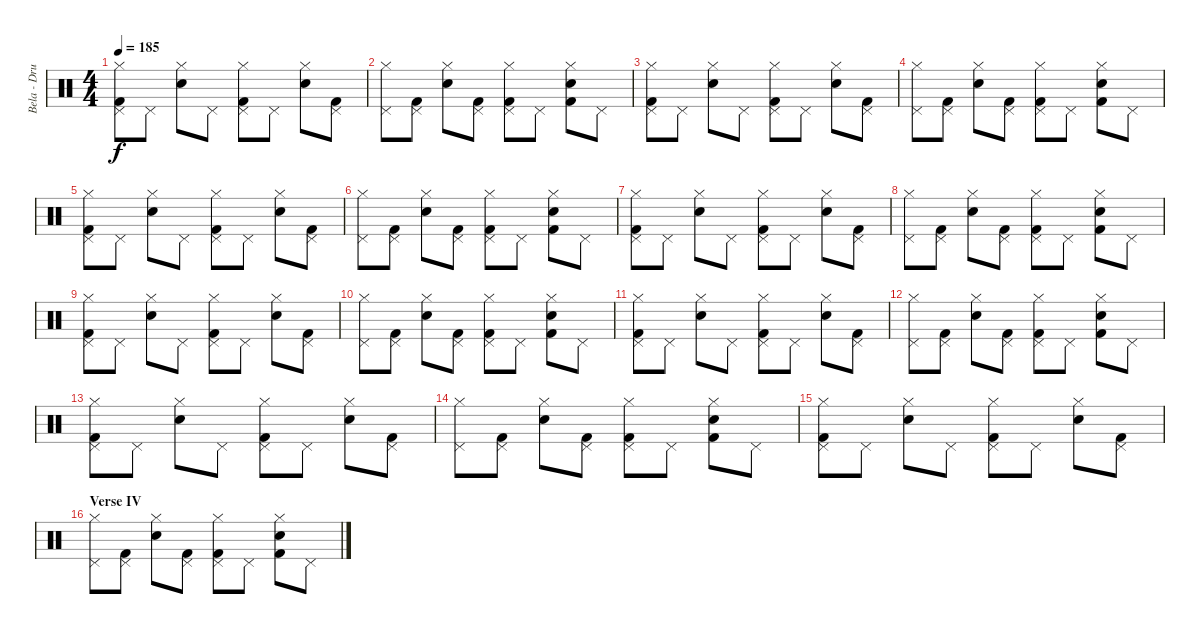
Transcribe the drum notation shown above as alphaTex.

\track ("Bela - Drums" "Bela - Dru") {instrument percussion}
\staff {score}
\articulation defaults
\ts (4 4)
\tempo 185
\clef neutral
\ks c
("Hi-Hat (closed)" "Pedal Hi-Hat (hit)" "Kick (hit) 2").8{dy f} "Pedal Hi-Hat (hit)".8 ("Hi-Hat (closed)" "Electric Snare (hit)").8 "Pedal Hi-Hat (hit)".8 ("Hi-Hat (closed)" "Kick (hit) 2" "Pedal Hi-Hat (hit)").8 "Pedal Hi-Hat (hit)".8 ("Hi-Hat (closed)" "Electric Snare (hit)").8 ("Pedal Hi-Hat (hit)" "Kick (hit) 2").8 |
("Hi-Hat (closed)" "Pedal Hi-Hat (hit)").8 ("Kick (hit) 2" "Pedal Hi-Hat (hit)").8 ("Hi-Hat (closed)" "Electric Snare (hit)").8 ("Kick (hit) 2" "Pedal Hi-Hat (hit)").8 ("Kick (hit) 2" "Hi-Hat (closed)" "Pedal Hi-Hat (hit)").8 "Pedal Hi-Hat (hit)".8 ("Hi-Hat (closed)" "Kick (hit) 2" "Electric Snare (hit)").8 "Pedal Hi-Hat (hit)".8 |
("Hi-Hat (closed)" "Pedal Hi-Hat (hit)" "Kick (hit) 2").8 "Pedal Hi-Hat (hit)".8 ("Hi-Hat (closed)" "Electric Snare (hit)").8 "Pedal Hi-Hat (hit)".8 ("Hi-Hat (closed)" "Kick (hit) 2" "Pedal Hi-Hat (hit)").8 "Pedal Hi-Hat (hit)".8 ("Hi-Hat (closed)" "Electric Snare (hit)").8 ("Pedal Hi-Hat (hit)" "Kick (hit) 2").8 |
("Hi-Hat (closed)" "Pedal Hi-Hat (hit)").8 ("Kick (hit) 2" "Pedal Hi-Hat (hit)").8 ("Hi-Hat (closed)" "Electric Snare (hit)").8 ("Kick (hit) 2" "Pedal Hi-Hat (hit)").8 ("Kick (hit) 2" "Hi-Hat (closed)" "Pedal Hi-Hat (hit)").8 "Pedal Hi-Hat (hit)".8 ("Hi-Hat (closed)" "Kick (hit) 2" "Electric Snare (hit)").8 "Pedal Hi-Hat (hit)".8 |
("Hi-Hat (closed)" "Pedal Hi-Hat (hit)" "Kick (hit) 2").8 "Pedal Hi-Hat (hit)".8 ("Hi-Hat (closed)" "Electric Snare (hit)").8 "Pedal Hi-Hat (hit)".8 ("Hi-Hat (closed)" "Kick (hit) 2" "Pedal Hi-Hat (hit)").8 "Pedal Hi-Hat (hit)".8 ("Hi-Hat (closed)" "Electric Snare (hit)").8 ("Pedal Hi-Hat (hit)" "Kick (hit) 2").8 |
("Hi-Hat (closed)" "Pedal Hi-Hat (hit)").8 ("Kick (hit) 2" "Pedal Hi-Hat (hit)").8 ("Hi-Hat (closed)" "Electric Snare (hit)").8 ("Kick (hit) 2" "Pedal Hi-Hat (hit)").8 ("Kick (hit) 2" "Hi-Hat (closed)" "Pedal Hi-Hat (hit)").8 "Pedal Hi-Hat (hit)".8 ("Hi-Hat (closed)" "Kick (hit) 2" "Electric Snare (hit)").8 "Pedal Hi-Hat (hit)".8 |
("Hi-Hat (closed)" "Pedal Hi-Hat (hit)" "Kick (hit) 2").8 "Pedal Hi-Hat (hit)".8 ("Hi-Hat (closed)" "Electric Snare (hit)").8 "Pedal Hi-Hat (hit)".8 ("Hi-Hat (closed)" "Kick (hit) 2" "Pedal Hi-Hat (hit)").8 "Pedal Hi-Hat (hit)".8 ("Hi-Hat (closed)" "Electric Snare (hit)").8 ("Pedal Hi-Hat (hit)" "Kick (hit) 2").8 |
("Hi-Hat (closed)" "Pedal Hi-Hat (hit)").8 ("Kick (hit) 2" "Pedal Hi-Hat (hit)").8 ("Hi-Hat (closed)" "Electric Snare (hit)").8 ("Kick (hit) 2" "Pedal Hi-Hat (hit)").8 ("Kick (hit) 2" "Hi-Hat (closed)" "Pedal Hi-Hat (hit)").8 "Pedal Hi-Hat (hit)".8 ("Hi-Hat (closed)" "Kick (hit) 2" "Electric Snare (hit)").8 "Pedal Hi-Hat (hit)".8 |
("Hi-Hat (closed)" "Pedal Hi-Hat (hit)" "Kick (hit) 2").8 "Pedal Hi-Hat (hit)".8 ("Hi-Hat (closed)" "Electric Snare (hit)").8 "Pedal Hi-Hat (hit)".8 ("Hi-Hat (closed)" "Kick (hit) 2" "Pedal Hi-Hat (hit)").8 "Pedal Hi-Hat (hit)".8 ("Hi-Hat (closed)" "Electric Snare (hit)").8 ("Pedal Hi-Hat (hit)" "Kick (hit) 2").8 |
("Hi-Hat (closed)" "Pedal Hi-Hat (hit)").8 ("Kick (hit) 2" "Pedal Hi-Hat (hit)").8 ("Hi-Hat (closed)" "Electric Snare (hit)").8 ("Kick (hit) 2" "Pedal Hi-Hat (hit)").8 ("Kick (hit) 2" "Hi-Hat (closed)" "Pedal Hi-Hat (hit)").8 "Pedal Hi-Hat (hit)".8 ("Hi-Hat (closed)" "Kick (hit) 2" "Electric Snare (hit)").8 "Pedal Hi-Hat (hit)".8 |
("Hi-Hat (closed)" "Pedal Hi-Hat (hit)" "Kick (hit) 2").8 "Pedal Hi-Hat (hit)".8 ("Hi-Hat (closed)" "Electric Snare (hit)").8 "Pedal Hi-Hat (hit)".8 ("Hi-Hat (closed)" "Kick (hit) 2" "Pedal Hi-Hat (hit)").8 "Pedal Hi-Hat (hit)".8 ("Hi-Hat (closed)" "Electric Snare (hit)").8 ("Pedal Hi-Hat (hit)" "Kick (hit) 2").8 |
("Hi-Hat (closed)" "Pedal Hi-Hat (hit)").8 ("Kick (hit) 2" "Pedal Hi-Hat (hit)").8 ("Hi-Hat (closed)" "Electric Snare (hit)").8 ("Kick (hit) 2" "Pedal Hi-Hat (hit)").8 ("Kick (hit) 2" "Hi-Hat (closed)" "Pedal Hi-Hat (hit)").8 "Pedal Hi-Hat (hit)".8 ("Hi-Hat (closed)" "Kick (hit) 2" "Electric Snare (hit)").8 "Pedal Hi-Hat (hit)".8 |
("Hi-Hat (closed)" "Pedal Hi-Hat (hit)" "Kick (hit) 2").8 "Pedal Hi-Hat (hit)".8 ("Hi-Hat (closed)" "Electric Snare (hit)").8 "Pedal Hi-Hat (hit)".8 ("Hi-Hat (closed)" "Kick (hit) 2" "Pedal Hi-Hat (hit)").8 "Pedal Hi-Hat (hit)".8 ("Hi-Hat (closed)" "Electric Snare (hit)").8 ("Pedal Hi-Hat (hit)" "Kick (hit) 2").8 |
("Hi-Hat (closed)" "Pedal Hi-Hat (hit)").8 ("Kick (hit) 2" "Pedal Hi-Hat (hit)").8 ("Hi-Hat (closed)" "Electric Snare (hit)").8 ("Kick (hit) 2" "Pedal Hi-Hat (hit)").8 ("Kick (hit) 2" "Hi-Hat (closed)" "Pedal Hi-Hat (hit)").8 "Pedal Hi-Hat (hit)".8 ("Hi-Hat (closed)" "Kick (hit) 2" "Electric Snare (hit)").8 "Pedal Hi-Hat (hit)".8 |
("Hi-Hat (closed)" "Pedal Hi-Hat (hit)" "Kick (hit) 2").8 "Pedal Hi-Hat (hit)".8 ("Hi-Hat (closed)" "Electric Snare (hit)").8 "Pedal Hi-Hat (hit)".8 ("Hi-Hat (closed)" "Kick (hit) 2" "Pedal Hi-Hat (hit)").8 "Pedal Hi-Hat (hit)".8 ("Hi-Hat (closed)" "Electric Snare (hit)").8 ("Pedal Hi-Hat (hit)" "Kick (hit) 2").8 |
\section ("" "Verse IV")
("Hi-Hat (closed)" "Pedal Hi-Hat (hit)").8 ("Kick (hit) 2" "Pedal Hi-Hat (hit)").8 ("Hi-Hat (closed)" "Electric Snare (hit)").8 ("Kick (hit) 2" "Pedal Hi-Hat (hit)").8 ("Kick (hit) 2" "Hi-Hat (closed)" "Pedal Hi-Hat (hit)").8 "Pedal Hi-Hat (hit)".8 ("Hi-Hat (closed)" "Kick (hit) 2" "Electric Snare (hit)").8 "Pedal Hi-Hat (hit)".8
